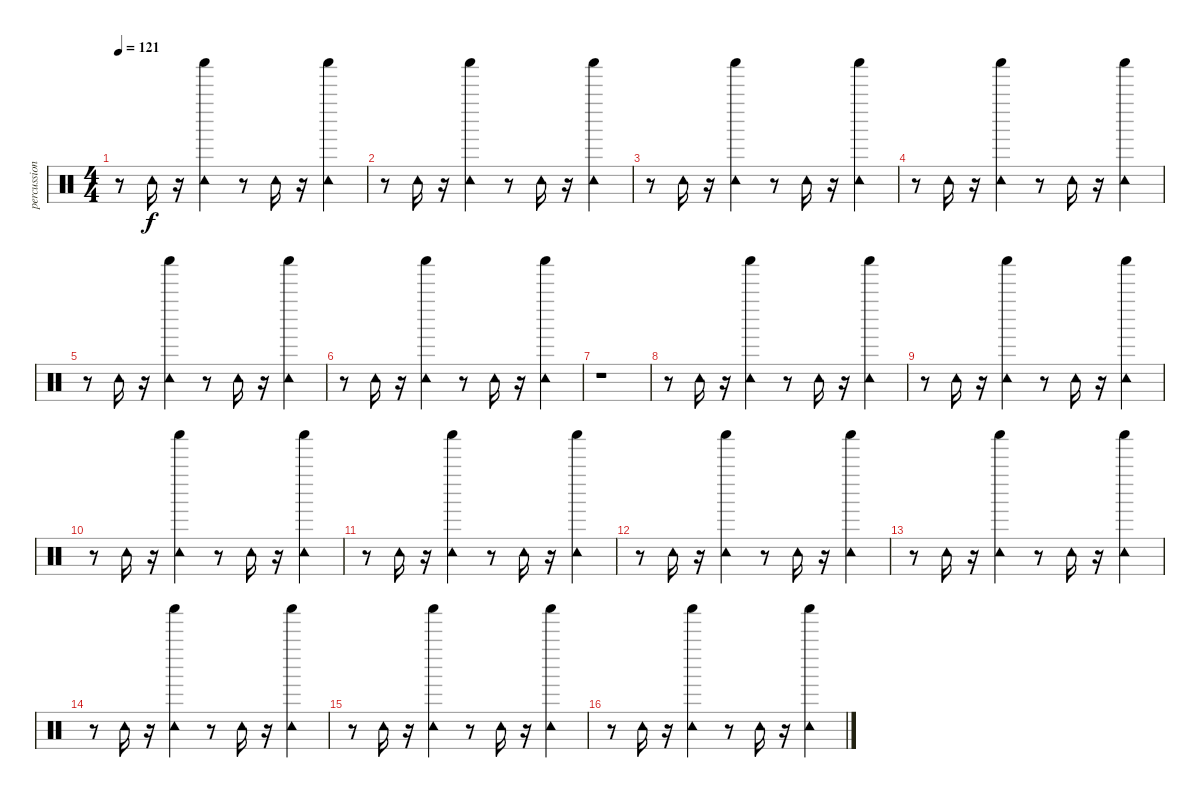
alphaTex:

\track ("percussion" "percussion") {instrument percussion}
\staff {score}
\articulation defaults
\ts (4 4)
\tempo 121
\clef neutral
\ks c
r.8{dy f} "Tambourine (hit)".16 r.16 ("Tambourine (hit)" "Shaker (hit)").4 r.8 "Tambourine (hit)".16 r.16 ("Tambourine (hit)" "Shaker (hit)").4 |
r.8 "Tambourine (hit)".16 r.16 ("Tambourine (hit)" "Shaker (hit)").4 r.8 "Tambourine (hit)".16 r.16 ("Tambourine (hit)" "Shaker (hit)").4 |
r.8 "Tambourine (hit)".16 r.16 ("Tambourine (hit)" "Shaker (hit)").4 r.8 "Tambourine (hit)".16 r.16 ("Tambourine (hit)" "Shaker (hit)").4 |
r.8 "Tambourine (hit)".16 r.16 ("Tambourine (hit)" "Shaker (hit)").4 r.8 "Tambourine (hit)".16 r.16 ("Tambourine (hit)" "Shaker (hit)").4 |
r.8 "Tambourine (hit)".16 r.16 ("Tambourine (hit)" "Shaker (hit)").4 r.8 "Tambourine (hit)".16 r.16 ("Tambourine (hit)" "Shaker (hit)").4 |
r.8 "Tambourine (hit)".16 r.16 ("Tambourine (hit)" "Shaker (hit)").4 r.8 "Tambourine (hit)".16 r.16 ("Tambourine (hit)" "Shaker (hit)").4 |
r.1 |
r.8 "Tambourine (hit)".16 r.16 ("Tambourine (hit)" "Shaker (hit)").4 r.8 "Tambourine (hit)".16 r.16 ("Tambourine (hit)" "Shaker (hit)").4 |
r.8 "Tambourine (hit)".16 r.16 ("Tambourine (hit)" "Shaker (hit)").4 r.8 "Tambourine (hit)".16 r.16 ("Tambourine (hit)" "Shaker (hit)").4 |
r.8 "Tambourine (hit)".16 r.16 ("Tambourine (hit)" "Shaker (hit)").4 r.8 "Tambourine (hit)".16 r.16 ("Tambourine (hit)" "Shaker (hit)").4 |
r.8 "Tambourine (hit)".16 r.16 ("Tambourine (hit)" "Shaker (hit)").4 r.8 "Tambourine (hit)".16 r.16 ("Tambourine (hit)" "Shaker (hit)").4 |
r.8 "Tambourine (hit)".16 r.16 ("Tambourine (hit)" "Shaker (hit)").4 r.8 "Tambourine (hit)".16 r.16 ("Tambourine (hit)" "Shaker (hit)").4 |
r.8 "Tambourine (hit)".16 r.16 ("Tambourine (hit)" "Shaker (hit)").4 r.8 "Tambourine (hit)".16 r.16 ("Tambourine (hit)" "Shaker (hit)").4 |
r.8 "Tambourine (hit)".16 r.16 ("Tambourine (hit)" "Shaker (hit)").4 r.8 "Tambourine (hit)".16 r.16 ("Tambourine (hit)" "Shaker (hit)").4 |
r.8 "Tambourine (hit)".16 r.16 ("Tambourine (hit)" "Shaker (hit)").4 r.8 "Tambourine (hit)".16 r.16 ("Tambourine (hit)" "Shaker (hit)").4 |
r.8 "Tambourine (hit)".16 r.16 ("Tambourine (hit)" "Shaker (hit)").4 r.8 "Tambourine (hit)".16 r.16 ("Tambourine (hit)" "Shaker (hit)").4
